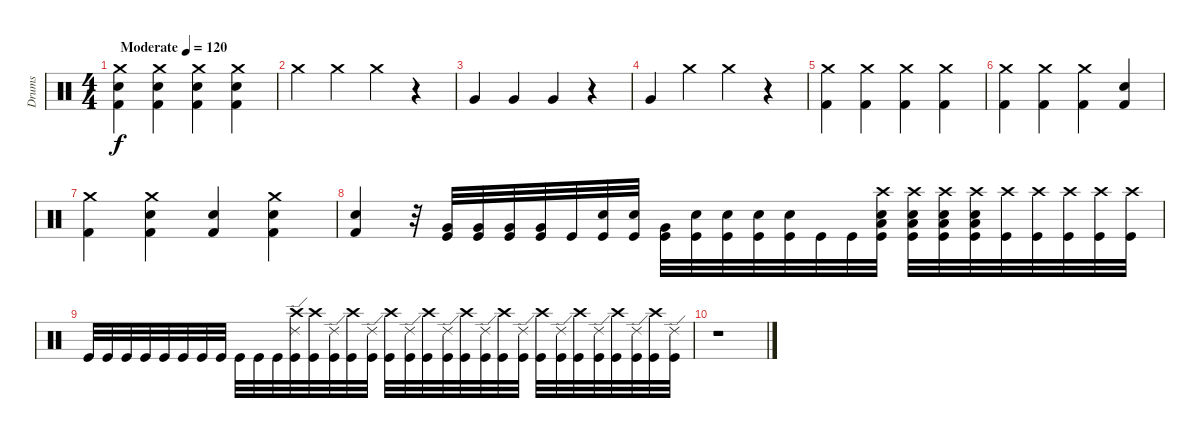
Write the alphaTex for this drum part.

\track ("Drums" "Drums") {instrument percussion}
\staff {score}
\articulation defaults
\ts (4 4)
\tempo (120 "Moderate")
\clef neutral
\ks c
("Crash medium (hit)" "Snare (hit) 2" "Kick (hit) 2").4{dy f} ("Crash medium (hit)" "Snare (hit) 2" "Kick (hit) 2").4 ("Crash medium (hit)" "Snare (hit) 2" "Kick (hit) 2").4 ("Crash medium (hit)" "Snare (hit) 2" "Kick (hit) 2").4 |
"Crash medium (hit)".4 "Crash medium (hit)".4 "Crash medium (hit)".4 r.4 |
"Very Low Tom (hit)".4 "Very Low Tom (hit)".4 "Very Low Tom (hit)".4 r.4 |
"Very Low Tom (hit)".4 "Crash medium (hit)".4 "Crash medium (hit)".4 r.4 |
("Crash medium (hit)" "Kick (hit) 2").4 ("Crash medium (hit)" "Kick (hit) 2").4 ("Crash medium (hit)" "Kick (hit) 2").4 ("Crash medium (hit)" "Kick (hit) 2").4 |
("Crash medium (hit)" "Kick (hit) 2").4 ("Crash medium (hit)" "Kick (hit) 2").4 ("Crash medium (hit)" "Kick (hit) 2").4 ("Snare (hit) 2" "Kick (hit) 2").4 |
("Crash medium (hit)" "Kick (hit) 2").4 ("Crash medium (hit)" "Snare (hit) 2" "Kick (hit) 2").4 ("Snare (hit) 2" "Kick (hit) 2").4 ("Crash medium (hit)" "Snare (hit) 2" "Kick (hit) 2").4 |
("Snare (hit) 2" "Kick (hit) 2").4 r.32 ("Very Low Tom (hit)" "Kick (hit)").32 ("Very Low Tom (hit)" "Kick (hit)").32 ("Very Low Tom (hit)" "Kick (hit)").32 ("Very Low Tom (hit)" "Kick (hit)").32 "Kick (hit)".32 ("Snare (hit) 2" "Kick (hit)").32 ("Snare (hit) 2" "Kick (hit)").32 ("Very Low Tom (hit)" "Kick (hit)").32 ("Snare (hit) 2" "Kick (hit)").32 ("Snare (hit) 2" "Kick (hit)").32 ("Snare (hit) 2" "Kick (hit)").32 ("Snare (hit) 2" "Kick (hit)").32 "Kick (hit)".32 "Kick (hit)".32 ("Low Tom (hit)" "Crash high (hit)" "Snare (hit) 2" "Kick (hit)").32 ("Low Tom (hit)" "Crash high (hit)" "Snare (hit) 2" "Kick (hit)").32 ("Low Tom (hit)" "Crash high (hit)" "Snare (hit) 2" "Kick (hit)").32 ("Low Tom (hit)" "Crash high (hit)" "Snare (hit) 2" "Kick (hit)").32 ("Crash high (hit)" "Kick (hit)").32 ("Crash high (hit)" "Kick (hit)").32 ("Crash high (hit)" "Kick (hit)").32 ("Crash high (hit)" "Kick (hit)").32 ("Crash high (hit)" "Kick (hit)").32 |
"Kick (hit)".32 "Kick (hit)".32 "Kick (hit)".32 "Kick (hit)".32 "Kick (hit)".32 "Kick (hit)".32 "Kick (hit)".32 "Kick (hit)".32 "Kick (hit)".32 "Kick (hit)".32 "Kick (hit)".32 ("Crash high (hit)" "Ride (edge) 2" "Kick (hit)").32 ("Crash high (hit)" "Kick (hit)").32 ("Ride (edge) 2" "Kick (hit)").32 ("Crash high (hit)" "Kick (hit)").32 ("Ride (edge) 2" "Kick (hit)").32 ("Crash high (hit)" "Kick (hit)").32 ("Ride (edge) 2" "Kick (hit)").32 ("Crash high (hit)" "Kick (hit)").32 ("Ride (edge) 2" "Kick (hit)").32 ("Crash high (hit)" "Kick (hit)").32 ("Ride (edge) 2" "Kick (hit)").32 ("Crash high (hit)" "Kick (hit)").32 ("Ride (edge) 2" "Kick (hit)").32 ("Crash high (hit)" "Kick (hit)").32 ("Ride (edge) 2" "Kick (hit)").32 ("Crash high (hit)" "Kick (hit)").32 ("Ride (edge) 2" "Kick (hit)").32 ("Crash high (hit)" "Kick (hit)").32 ("Ride (edge) 2" "Kick (hit)").32 ("Crash high (hit)" "Kick (hit)").32 ("Ride (edge) 2" "Kick (hit)").32 |
r.1
